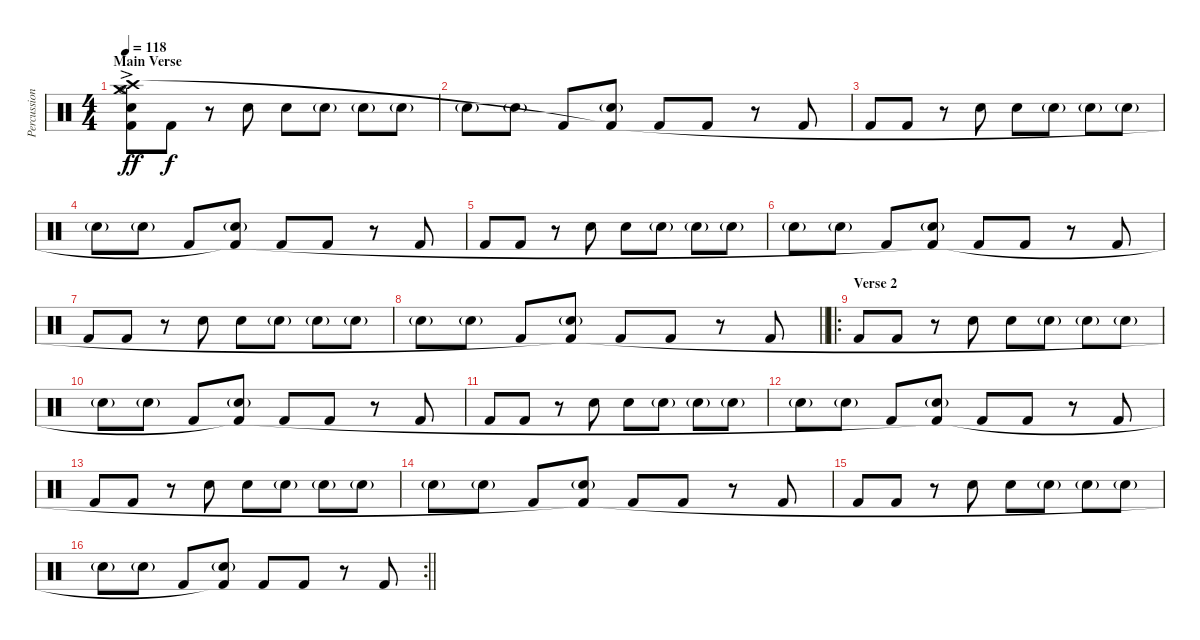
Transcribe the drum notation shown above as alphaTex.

\track ("Percussion" "Percussion") {instrument percussion}
\staff {score}
\articulation defaults
\ts (4 4)
\section ("" "Main Verse")
\tempo 118
\clef neutral
\ks c
("Hi-Hat (open)"{ac} "Crash high (hit)"{ac} "Crash medium (hit)"{ac} "Snare (hit) 2"{ac} "Kick (hit) 2"{ac}).8{dy ff volume 6} "Kick (hit) 2".8{dy f volume 4} r.8 "Snare (hit) 2".8 "Snare (hit) 2".8 "Snare (hit) 2"{g}.8 "Snare (hit) 2"{g}.8 "Snare (hit) 2"{g}.8 |
"Snare (hit) 2"{g}.8 "Snare (hit) 2"{g}.8 "Kick (hit) 2".8 ("Snare (hit) 2"{g} "Kick (hit) 2"{t}).8 "Kick (hit) 2".8 "Kick (hit) 2".8 r.8 "Kick (hit) 2".8 |
"Kick (hit) 2".8 "Kick (hit) 2".8 r.8 "Snare (hit) 2".8 "Snare (hit) 2".8 "Snare (hit) 2"{g}.8 "Snare (hit) 2"{g}.8 "Snare (hit) 2"{g}.8 |
"Snare (hit) 2"{g}.8 "Snare (hit) 2"{g}.8 "Kick (hit) 2".8 ("Snare (hit) 2"{g} "Kick (hit) 2"{t}).8 "Kick (hit) 2".8 "Kick (hit) 2".8 r.8 "Kick (hit) 2".8 |
"Kick (hit) 2".8 "Kick (hit) 2".8 r.8 "Snare (hit) 2".8 "Snare (hit) 2".8 "Snare (hit) 2"{g}.8 "Snare (hit) 2"{g}.8 "Snare (hit) 2"{g}.8 |
"Snare (hit) 2"{g}.8 "Snare (hit) 2"{g}.8 "Kick (hit) 2".8 ("Snare (hit) 2"{g} "Kick (hit) 2"{t}).8 "Kick (hit) 2".8 "Kick (hit) 2".8 r.8 "Kick (hit) 2".8 |
"Kick (hit) 2".8 "Kick (hit) 2".8 r.8 "Snare (hit) 2".8 "Snare (hit) 2".8 "Snare (hit) 2"{g}.8 "Snare (hit) 2"{g}.8 "Snare (hit) 2"{g}.8 |
\barLineRight lightlight "Snare (hit) 2"{g}.8 "Snare (hit) 2"{g}.8 "Kick (hit) 2".8
("Snare (hit) 2"{g} "Kick (hit) 2"{t}).8 "Kick (hit) 2".8 "Kick (hit) 2".8 r.8 "Kick (hit) 2".8 |
\ro
\section ("" "Verse 2")
"Kick (hit) 2".8{volume 6} "Kick (hit) 2".8 r.8 "Snare (hit) 2".8 "Snare (hit) 2".8 "Snare (hit) 2"{g}.8 "Snare (hit) 2"{g}.8 "Snare (hit) 2"{g}.8 |
"Snare (hit) 2"{g}.8 "Snare (hit) 2"{g}.8 "Kick (hit) 2".8 ("Snare (hit) 2"{g} "Kick (hit) 2"{t}).8 "Kick (hit) 2".8 "Kick (hit) 2".8 r.8 "Kick (hit) 2".8 |
"Kick (hit) 2".8 "Kick (hit) 2".8 r.8 "Snare (hit) 2".8 "Snare (hit) 2".8 "Snare (hit) 2"{g}.8 "Snare (hit) 2"{g}.8 "Snare (hit) 2"{g}.8 |
"Snare (hit) 2"{g}.8 "Snare (hit) 2"{g}.8 "Kick (hit) 2".8 ("Snare (hit) 2"{g} "Kick (hit) 2"{t}).8 "Kick (hit) 2".8 "Kick (hit) 2".8 r.8 "Kick (hit) 2".8 |
"Kick (hit) 2".8 "Kick (hit) 2".8 r.8 "Snare (hit) 2".8 "Snare (hit) 2".8 "Snare (hit) 2"{g}.8 "Snare (hit) 2"{g}.8 "Snare (hit) 2"{g}.8 |
"Snare (hit) 2"{g}.8 "Snare (hit) 2"{g}.8 "Kick (hit) 2".8 ("Snare (hit) 2"{g} "Kick (hit) 2"{t}).8 "Kick (hit) 2".8 "Kick (hit) 2".8 r.8 "Kick (hit) 2".8 |
"Kick (hit) 2".8 "Kick (hit) 2".8 r.8 "Snare (hit) 2".8 "Snare (hit) 2".8 "Snare (hit) 2"{g}.8 "Snare (hit) 2"{g}.8 "Snare (hit) 2"{g}.8 |
\rc 2
\barLineRight lightlight "Snare (hit) 2"{g}.8 "Snare (hit) 2"{g}.8 "Kick (hit) 2".8
("Snare (hit) 2"{g} "Kick (hit) 2"{t}).8 "Kick (hit) 2".8 "Kick (hit) 2".8 r.8 "Kick (hit) 2".8
